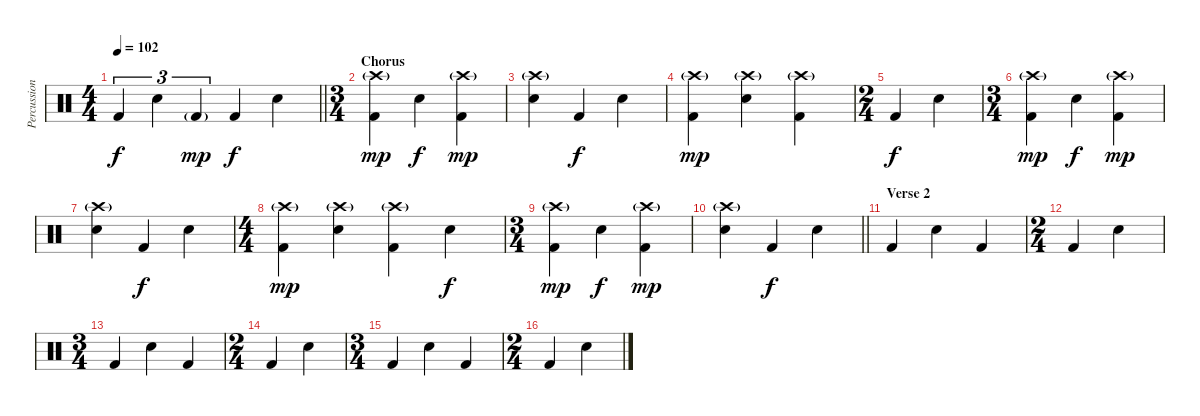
\track ("Percussion" "Percussion") {instrument percussion}
\staff {score}
\articulation defaults
\ts (4 4)
\tempo 102
\clef neutral
\barLineRight lightlight
\ks c "Kick (hit) 2".4{tu (3 2) dy f} "Snare (hit) 2".4{tu (3 2)} "Kick (hit) 2"{g}.4{tu (3 2) dy mp} "Kick (hit) 2".4{dy f} "Snare (hit) 2".4
|
\ts (3 4)
\section ("" "Chorus")
("Crash high (hit)"{g} "Kick (hit) 2").4{dy mp} "Snare (hit) 2".4{dy f} ("Crash high (hit)"{g} "Kick (hit) 2").4{dy mp} |
("Crash high (hit)"{g} "Snare (hit) 2").4 "Kick (hit) 2".4{dy f} "Snare (hit) 2".4 |
("Crash high (hit)"{g} "Kick (hit) 2").4{dy mp} ("Crash high (hit)"{g} "Snare (hit) 2").4 ("Crash high (hit)"{g} "Kick (hit) 2").4 |
\ts (2 4)
"Kick (hit) 2".4{dy f} "Snare (hit) 2".4 |
\ts (3 4)
("Crash high (hit)"{g} "Kick (hit) 2").4{dy mp} "Snare (hit) 2".4{dy f} ("Crash high (hit)"{g} "Kick (hit) 2").4{dy mp} |
("Crash high (hit)"{g} "Snare (hit) 2").4 "Kick (hit) 2".4{dy f} "Snare (hit) 2".4 |
\ts (4 4)
("Crash high (hit)"{g} "Kick (hit) 2").4{dy mp} ("Crash high (hit)"{g} "Snare (hit) 2").4 ("Crash high (hit)"{g} "Kick (hit) 2").4 "Snare (hit) 2".4{dy f} |
\ts (3 4)
("Crash high (hit)"{g} "Kick (hit) 2").4{dy mp} "Snare (hit) 2".4{dy f} ("Crash high (hit)"{g} "Kick (hit) 2").4{dy mp} |
\barLineRight lightlight
("Crash high (hit)"{g} "Snare (hit) 2").4 "Kick (hit) 2".4{dy f} "Snare (hit) 2".4 |
\section ("" "Verse 2")
"Kick (hit) 2".4 "Snare (hit) 2".4 "Kick (hit) 2".4 |
\ts (2 4)
"Kick (hit) 2".4 "Snare (hit) 2".4 |
\ts (3 4)
"Kick (hit) 2".4 "Snare (hit) 2".4 "Kick (hit) 2".4 |
\ts (2 4)
"Kick (hit) 2".4 "Snare (hit) 2".4 |
\ts (3 4)
"Kick (hit) 2".4 "Snare (hit) 2".4 "Kick (hit) 2".4 |
\ts (2 4)
"Kick (hit) 2".4 "Snare (hit) 2".4
